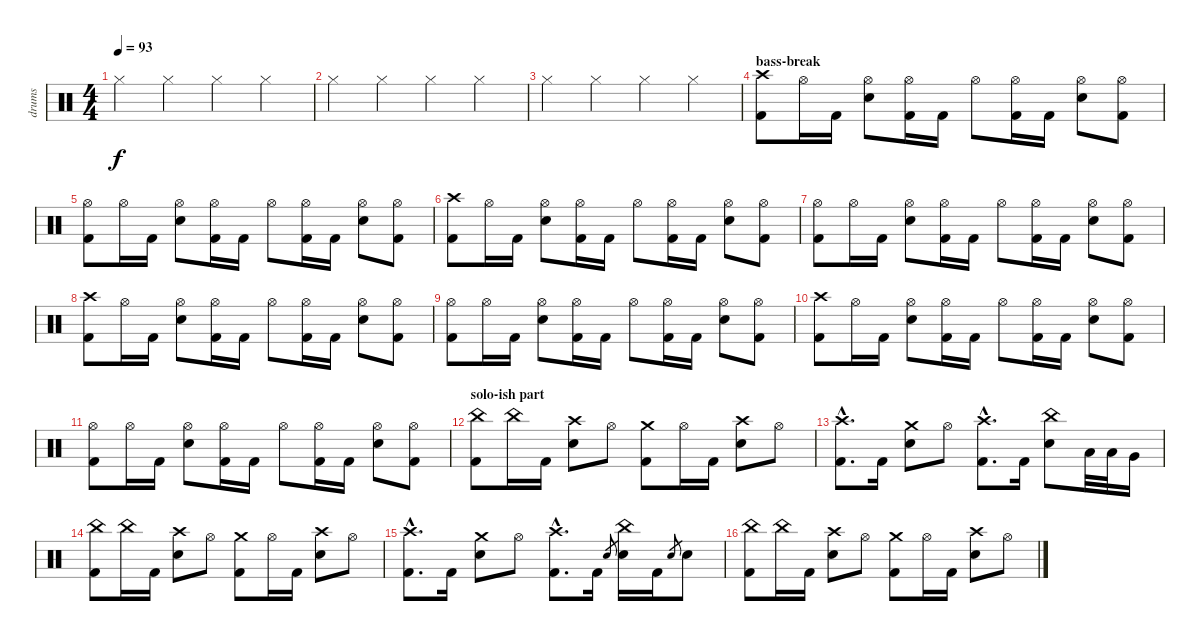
\track ("drums" "drums") {instrument percussion}
\staff {score}
\articulation defaults
\ts (4 4)
\tempo 93
\clef neutral
\ks c "Hi-Hat (closed)".4{dy f} "Hi-Hat (closed)".4 "Hi-Hat (closed)".4 "Hi-Hat (closed)".4
|
"Hi-Hat (closed)".4 "Hi-Hat (closed)".4 "Hi-Hat (closed)".4 "Hi-Hat (closed)".4 |
"Hi-Hat (closed)".4 "Hi-Hat (closed)".4 "Hi-Hat (closed)".4 "Hi-Hat (closed)".4 |
\section ("" "bass-break")
("Crash high (hit)" "Kick (hit) 2").8 "Hi-Hat (open)".16 "Kick (hit) 2".16 ("Hi-Hat (open)" "Electric Snare (hit)").8 ("Hi-Hat (open)" "Kick (hit) 2").16 "Kick (hit) 2".16 "Hi-Hat (open)".8 ("Hi-Hat (open)" "Kick (hit) 2").16 "Kick (hit) 2".16 ("Hi-Hat (open)" "Electric Snare (hit)").8 ("Hi-Hat (open)" "Kick (hit) 2").8 |
("Hi-Hat (open)" "Kick (hit) 2").8 "Hi-Hat (open)".16 "Kick (hit) 2".16 ("Hi-Hat (open)" "Electric Snare (hit)").8 ("Hi-Hat (open)" "Kick (hit) 2").16 "Kick (hit) 2".16 "Hi-Hat (open)".8 ("Hi-Hat (open)" "Kick (hit) 2").16 "Kick (hit) 2".16 ("Hi-Hat (open)" "Electric Snare (hit)").8 ("Hi-Hat (open)" "Kick (hit) 2").8 |
("Crash high (hit)" "Kick (hit) 2").8 "Hi-Hat (open)".16 "Kick (hit) 2".16 ("Hi-Hat (open)" "Electric Snare (hit)").8 ("Hi-Hat (open)" "Kick (hit) 2").16 "Kick (hit) 2".16 "Hi-Hat (open)".8 ("Hi-Hat (open)" "Kick (hit) 2").16 "Kick (hit) 2".16 ("Hi-Hat (open)" "Electric Snare (hit)").8 ("Hi-Hat (open)" "Kick (hit) 2").8 |
("Hi-Hat (open)" "Kick (hit) 2").8 "Hi-Hat (open)".16 "Kick (hit) 2".16 ("Hi-Hat (open)" "Electric Snare (hit)").8 ("Hi-Hat (open)" "Kick (hit) 2").16 "Kick (hit) 2".16 "Hi-Hat (open)".8 ("Hi-Hat (open)" "Kick (hit) 2").16 "Kick (hit) 2".16 ("Hi-Hat (open)" "Electric Snare (hit)").8 ("Hi-Hat (open)" "Kick (hit) 2").8 |
("Crash high (hit)" "Kick (hit) 2").8 "Hi-Hat (open)".16 "Kick (hit) 2".16 ("Hi-Hat (open)" "Electric Snare (hit)").8 ("Hi-Hat (open)" "Kick (hit) 2").16 "Kick (hit) 2".16 "Hi-Hat (open)".8 ("Hi-Hat (open)" "Kick (hit) 2").16 "Kick (hit) 2".16 ("Hi-Hat (open)" "Electric Snare (hit)").8 ("Hi-Hat (open)" "Kick (hit) 2").8 |
("Hi-Hat (open)" "Kick (hit) 2").8 "Hi-Hat (open)".16 "Kick (hit) 2".16 ("Hi-Hat (open)" "Electric Snare (hit)").8 ("Hi-Hat (open)" "Kick (hit) 2").16 "Kick (hit) 2".16 "Hi-Hat (open)".8 ("Hi-Hat (open)" "Kick (hit) 2").16 "Kick (hit) 2".16 ("Hi-Hat (open)" "Electric Snare (hit)").8 ("Hi-Hat (open)" "Kick (hit) 2").8 |
("Crash high (hit)" "Kick (hit) 2").8 "Hi-Hat (open)".16 "Kick (hit) 2".16 ("Hi-Hat (open)" "Electric Snare (hit)").8 ("Hi-Hat (open)" "Kick (hit) 2").16 "Kick (hit) 2".16 "Hi-Hat (open)".8 ("Hi-Hat (open)" "Kick (hit) 2").16 "Kick (hit) 2".16 ("Hi-Hat (open)" "Electric Snare (hit)").8 ("Hi-Hat (open)" "Kick (hit) 2").8 |
("Hi-Hat (open)" "Kick (hit) 2").8 "Hi-Hat (open)".16 "Kick (hit) 2".16 ("Hi-Hat (open)" "Electric Snare (hit)").8 ("Hi-Hat (open)" "Kick (hit) 2").16 "Kick (hit) 2".16 "Hi-Hat (open)".8 ("Hi-Hat (open)" "Kick (hit) 2").16 "Kick (hit) 2".16 ("Hi-Hat (open)" "Electric Snare (hit)").8 ("Hi-Hat (open)" "Kick (hit) 2").8 |
\section ("" "solo-ish part")
("China (hit)" "Kick (hit) 2").8 "China (hit)".16 "Kick (hit) 2".16 ("Crash high (hit)" "Electric Snare (hit)").8 "Hi-Hat (open)".8 ("Crash medium (hit)" "Kick (hit) 2").8 "Hi-Hat (open)".16 "Kick (hit) 2".16 ("Crash high (hit)" "Electric Snare (hit)").8 "Hi-Hat (open)".8 |
("Crash high (hit)"{hac} "Kick (hit) 2"{hac}).8{d} "Kick (hit) 2".16 ("Crash medium (hit)" "Electric Snare (hit)").8 "Hi-Hat (open)".8 ("Crash high (hit)"{hac} "Kick (hit) 2"{hac}).8{d} "Kick (hit) 2".16 ("China (hit)" "Electric Snare (hit)").8 "Low Tom (hit)".32 "Low Tom (hit)".32 "Very Low Tom (hit)".16 |
("China (hit)" "Kick (hit) 2").8 "China (hit)".16 "Kick (hit) 2".16 ("Crash high (hit)" "Electric Snare (hit)").8 "Hi-Hat (open)".8 ("Crash medium (hit)" "Kick (hit) 2").8 "Hi-Hat (open)".16 "Kick (hit) 2".16 ("Crash high (hit)" "Electric Snare (hit)").8 "Hi-Hat (open)".8 |
("Crash high (hit)"{hac} "Kick (hit) 2"{hac}).8{d} "Kick (hit) 2".16 ("Crash medium (hit)" "Electric Snare (hit)").8 "Hi-Hat (open)".8 ("Crash high (hit)"{hac} "Kick (hit) 2"{hac}).8{d} "Kick (hit) 2".16 "Electric Snare (hit)".8{gr} ("China (hit)" "Electric Snare (hit)").16 "Kick (hit) 2".16 "Electric Snare (hit)".8{gr} "Electric Snare (hit)".8 |
("China (hit)" "Kick (hit) 2").8 "China (hit)".16 "Kick (hit) 2".16 ("Crash high (hit)" "Electric Snare (hit)").8 "Hi-Hat (open)".8 ("Crash medium (hit)" "Kick (hit) 2").8 "Hi-Hat (open)".16 "Kick (hit) 2".16 ("Crash high (hit)" "Electric Snare (hit)").8 "Hi-Hat (open)".8
